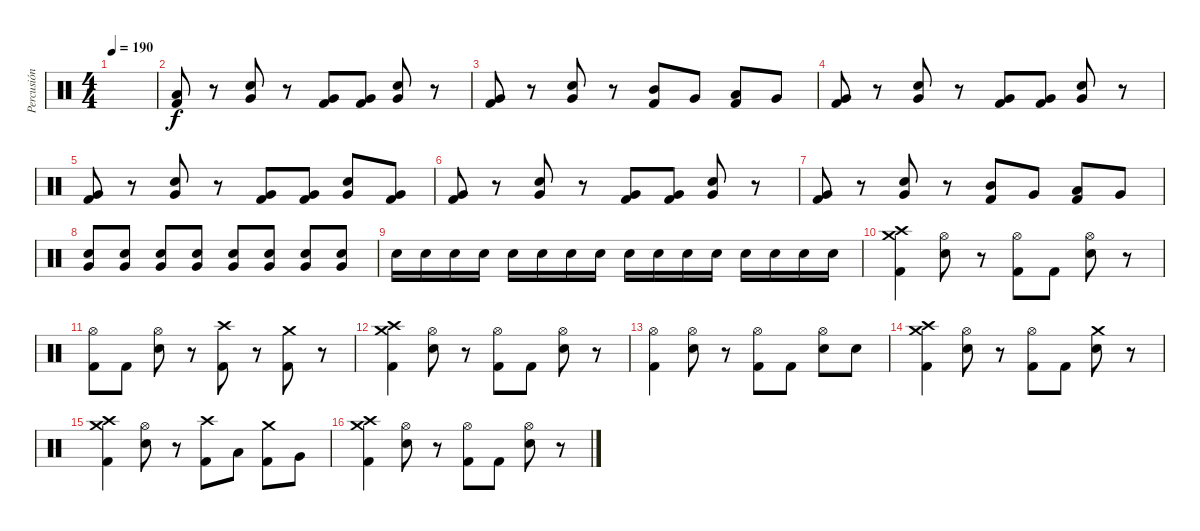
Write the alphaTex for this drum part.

\track ("Percusión" "Percusión") {instrument percussion}
\staff {score}
\articulation defaults
\ts (4 4)
\tempo 190
\clef neutral
\ks c
|
("Low Tom (hit)" "Kick (hit) 2").8 r.8 ("Very Low Tom (hit)" "Electric Snare (hit)").8 r.8 ("Very Low Tom (hit)" "Kick (hit) 2").8 ("Very Low Tom (hit)" "Kick (hit) 2").8 ("Very Low Tom (hit)" "Electric Snare (hit)").8 r.8 |
("Very Low Tom (hit)" "Kick (hit) 2").8 r.8 ("Very Low Tom (hit)" "Electric Snare (hit)").8 r.8 ("Mid Tom (hit)" "Kick (hit) 2").8 "Very Low Tom (hit)".8 ("Low Tom (hit)" "Kick (hit) 2").8 "Very Low Tom (hit)".8 |
("Very Low Tom (hit)" "Kick (hit) 2").8 r.8 ("Very Low Tom (hit)" "Electric Snare (hit)").8 r.8 ("Very Low Tom (hit)" "Kick (hit) 2").8 ("Very Low Tom (hit)" "Kick (hit) 2").8 ("Very Low Tom (hit)" "Electric Snare (hit)").8 r.8 |
("Very Low Tom (hit)" "Kick (hit) 2").8 r.8 ("Very Low Tom (hit)" "Electric Snare (hit)").8 r.8 ("Very Low Tom (hit)" "Kick (hit) 2").8 ("Very Low Tom (hit)" "Kick (hit) 2").8 ("Very Low Tom (hit)" "Electric Snare (hit)").8 ("Very Low Tom (hit)" "Kick (hit) 2").8 |
("Very Low Tom (hit)" "Kick (hit) 2").8 r.8 ("Very Low Tom (hit)" "Electric Snare (hit)").8 r.8 ("Very Low Tom (hit)" "Kick (hit) 2").8 ("Very Low Tom (hit)" "Kick (hit) 2").8 ("Very Low Tom (hit)" "Electric Snare (hit)").8 r.8 |
("Very Low Tom (hit)" "Kick (hit) 2").8 r.8 ("Very Low Tom (hit)" "Electric Snare (hit)").8 r.8 ("Mid Tom (hit)" "Kick (hit) 2").8 "Very Low Tom (hit)".8 ("Low Tom (hit)" "Kick (hit) 2").8 "Very Low Tom (hit)".8 |
("Very Low Tom (hit)" "Electric Snare (hit)").8 ("Very Low Tom (hit)" "Electric Snare (hit)").8 ("Very Low Tom (hit)" "Electric Snare (hit)").8 ("Very Low Tom (hit)" "Electric Snare (hit)").8 ("Very Low Tom (hit)" "Electric Snare (hit)").8 ("Very Low Tom (hit)" "Electric Snare (hit)").8 ("Very Low Tom (hit)" "Electric Snare (hit)").8 ("Very Low Tom (hit)" "Electric Snare (hit)").8 |
"Electric Snare (hit)".16 "Electric Snare (hit)".16 "Electric Snare (hit)".16 "Electric Snare (hit)".16 "Electric Snare (hit)".16 "Electric Snare (hit)".16 "Electric Snare (hit)".16 "Electric Snare (hit)".16 "Electric Snare (hit)".16 "Electric Snare (hit)".16 "Electric Snare (hit)".16 "Electric Snare (hit)".16 "Electric Snare (hit)".16 "Electric Snare (hit)".16 "Electric Snare (hit)".16 "Electric Snare (hit)".16 |
("Crash high (hit)" "Crash medium (hit)" "Kick (hit) 2").4 ("Hi-Hat (open)" "Electric Snare (hit)").8 r.8 ("Hi-Hat (open)" "Kick (hit) 2").8 "Kick (hit) 2".8 ("Hi-Hat (open)" "Electric Snare (hit)").8 r.8 |
("Hi-Hat (open)" "Kick (hit) 2").8 "Kick (hit) 2".8 ("Hi-Hat (open)" "Electric Snare (hit)").8 r.8 ("Crash high (hit)" "Kick (hit) 2").8 r.8 ("Crash medium (hit)" "Kick (hit) 2").8 r.8 |
("Crash high (hit)" "Crash medium (hit)" "Kick (hit) 2").4 ("Hi-Hat (open)" "Electric Snare (hit)").8 r.8 ("Hi-Hat (open)" "Kick (hit) 2").8 "Kick (hit) 2".8 ("Hi-Hat (open)" "Electric Snare (hit)").8 r.8 |
("Hi-Hat (open)" "Kick (hit) 2").4 ("Hi-Hat (open)" "Electric Snare (hit)").8 r.8 ("Hi-Hat (open)" "Kick (hit) 2").8 "Kick (hit) 2".8 ("Hi-Hat (open)" "Electric Snare (hit)").8 "Electric Snare (hit)".8 |
("Crash high (hit)" "Crash medium (hit)" "Kick (hit) 2").4 ("Hi-Hat (open)" "Electric Snare (hit)").8 r.8 ("Hi-Hat (open)" "Kick (hit) 2").8 "Kick (hit) 2".8 ("Crash medium (hit)" "Electric Snare (hit)").8 r.8 |
("Crash high (hit)" "Crash medium (hit)" "Kick (hit) 2").4 ("Hi-Hat (open)" "Electric Snare (hit)").8 r.8 ("Crash high (hit)" "Kick (hit) 2").8 "Low Tom (hit)".8 ("Crash medium (hit)" "Kick (hit) 2").8 "Very Low Tom (hit)".8 |
("Crash high (hit)" "Crash medium (hit)" "Kick (hit) 2").4 ("Hi-Hat (open)" "Electric Snare (hit)").8 r.8 ("Hi-Hat (open)" "Kick (hit) 2").8 "Kick (hit) 2".8 ("Hi-Hat (open)" "Electric Snare (hit)").8 r.8
